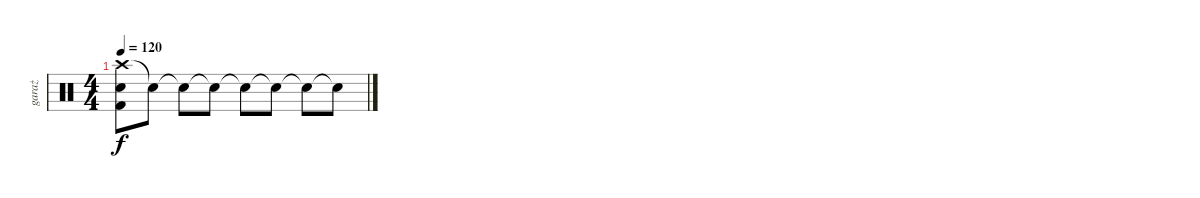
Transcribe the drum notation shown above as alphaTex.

\track ("garaż" "garaż") {instrument percussion}
\staff {score}
\articulation defaults
\ts (4 4)
\tempo 120
\clef neutral
\ks c
("Crash high (hit)" "Snare (hit) 2" "Kick (hit) 2").8{dy f volume 0} "Snare (hit)"{t}.8 "Snare (hit)"{t}.8 "Snare (hit)"{t}.8 "Snare (hit)"{t}.8 "Snare (hit)"{t}.8 "Snare (hit)"{t}.8 "Snare (hit)"{t}.8
